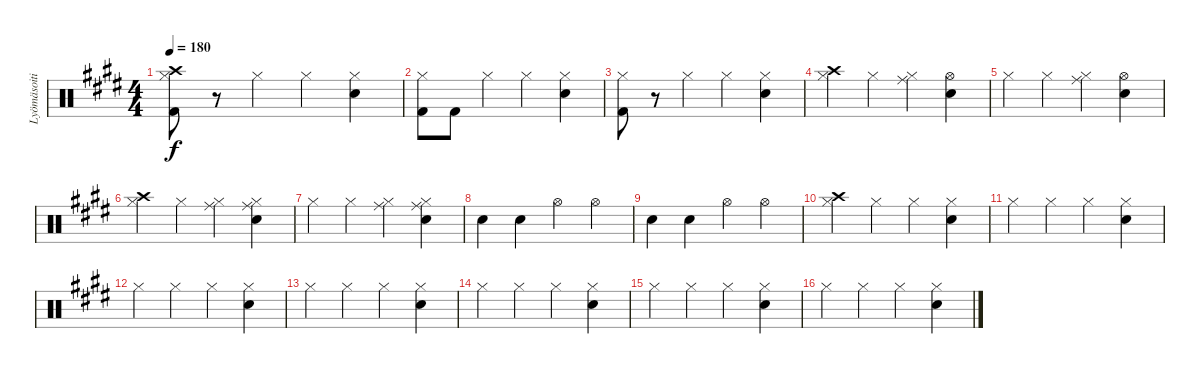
\track ("Lyömäsoitin" "Lyömäsoiti") {instrument percussion}
\staff {score}
\articulation defaults
\ts (4 4)
\tempo 180
\clef neutral
\ks e
("Crash high (hit)" "Hi-Hat (closed)" "Kick (hit) 2").8{dy f} r.8 "Hi-Hat (closed)".4 "Hi-Hat (closed)".4 ("Hi-Hat (closed)" "Electric Snare (hit)").4 |
("Hi-Hat (closed)" "Kick (hit) 2").8 "Kick (hit) 2".8 "Hi-Hat (closed)".4 "Hi-Hat (closed)".4 ("Hi-Hat (closed)" "Electric Snare (hit)").4 |
("Hi-Hat (closed)" "Kick (hit) 2").8 r.8 "Hi-Hat (closed)".4 "Hi-Hat (closed)".4 ("Hi-Hat (closed)" "Electric Snare (hit)").4 |
("Crash high (hit)" "Hi-Hat (closed)").4 "Hi-Hat (closed)".4 ("Ride (middle)" "Hi-Hat (closed)").4 ("Hi-Hat (open)" "Electric Snare (hit)").4 |
"Hi-Hat (closed)".4 "Hi-Hat (closed)".4 ("Ride (middle)" "Hi-Hat (closed)").4 ("Hi-Hat (open)" "Electric Snare (hit)").4 |
("Crash high (hit)" "Hi-Hat (closed)").4 "Hi-Hat (closed)".4 ("Ride (middle)" "Hi-Hat (closed)").4 ("Ride (middle)" "Hi-Hat (closed)" "Electric Snare (hit)").4 |
"Hi-Hat (closed)".4 "Hi-Hat (closed)".4 ("Ride (middle)" "Hi-Hat (closed)").4 ("Ride (middle)" "Hi-Hat (closed)" "Electric Snare (hit)").4 |
"Electric Snare (hit)".4 "Electric Snare (hit)".4 "Hi-Hat (open)".4 "Hi-Hat (open)".4 |
"Electric Snare (hit)".4 "Electric Snare (hit)".4 "Hi-Hat (open)".4 "Hi-Hat (open)".4 |
("Crash high (hit)" "Hi-Hat (closed)").4 "Hi-Hat (closed)".4 "Hi-Hat (closed)".4 ("Hi-Hat (closed)" "Electric Snare (hit)").4 |
"Hi-Hat (closed)".4 "Hi-Hat (closed)".4 "Hi-Hat (closed)".4 ("Hi-Hat (closed)" "Electric Snare (hit)").4 |
"Hi-Hat (closed)".4 "Hi-Hat (closed)".4 "Hi-Hat (closed)".4 ("Hi-Hat (closed)" "Electric Snare (hit)").4 |
"Hi-Hat (closed)".4 "Hi-Hat (closed)".4 "Hi-Hat (closed)".4 ("Hi-Hat (closed)" "Electric Snare (hit)").4 |
"Hi-Hat (closed)".4 "Hi-Hat (closed)".4 "Hi-Hat (closed)".4 ("Hi-Hat (closed)" "Electric Snare (hit)").4 |
"Hi-Hat (closed)".4 "Hi-Hat (closed)".4 "Hi-Hat (closed)".4 ("Hi-Hat (closed)" "Electric Snare (hit)").4 |
"Hi-Hat (closed)".4 "Hi-Hat (closed)".4 "Hi-Hat (closed)".4 ("Hi-Hat (closed)" "Electric Snare (hit)").4
